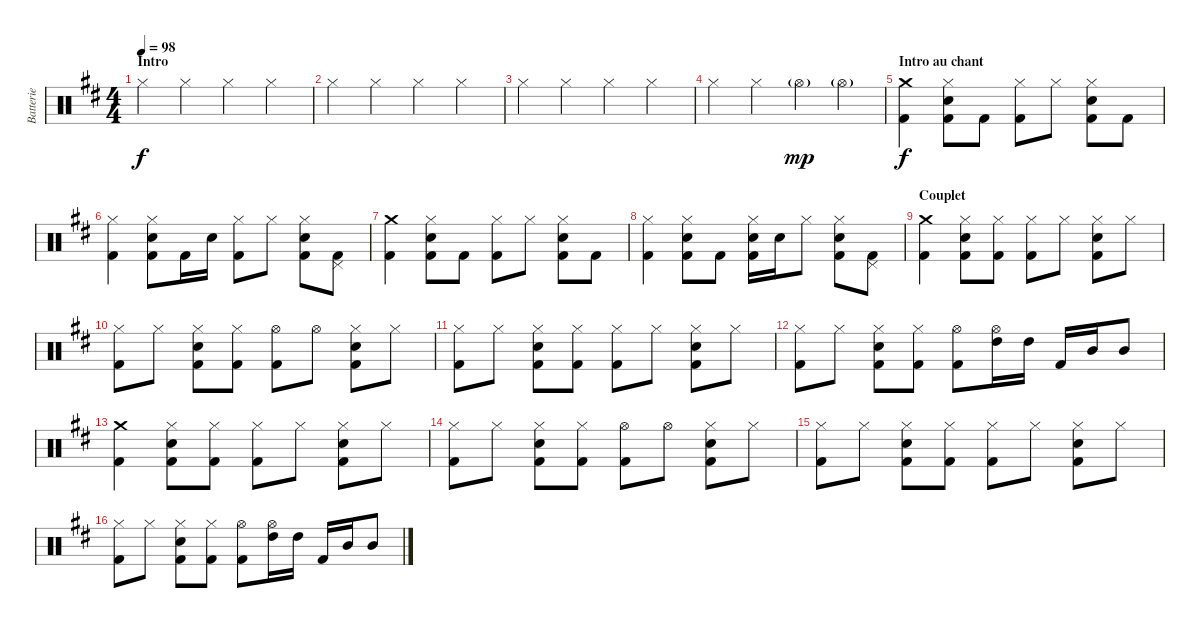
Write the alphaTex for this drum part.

\track ("Batterie" "Batterie") {instrument percussion}
\staff {score}
\articulation defaults
\ts (4 4)
\section ("" "Intro")
\tempo 98
\clef neutral
\ks d "Hi-Hat (closed)".4{dy f} "Hi-Hat (closed)".4 "Hi-Hat (closed)".4 "Hi-Hat (closed)".4
|
"Hi-Hat (closed)".4 "Hi-Hat (closed)".4 "Hi-Hat (closed)".4 "Hi-Hat (closed)".4 |
"Hi-Hat (closed)".4 "Hi-Hat (closed)".4 "Hi-Hat (closed)".4 "Hi-Hat (closed)".4 |
"Hi-Hat (closed)".4 "Hi-Hat (closed)".4 "Hi-Hat (open)"{g}.4{dy mp} "Hi-Hat (open)"{g}.4 |
\section ("" "Intro au chant")
("Crash medium (hit)" "Kick (hit) 2").4{dy f} ("Hi-Hat (closed)" "Snare (hit) 2" "Kick (hit) 2").8 "Kick (hit) 2".8 ("Hi-Hat (closed)" "Kick (hit) 2").8 "Hi-Hat (closed)".8 ("Hi-Hat (closed)" "Snare (hit) 2" "Kick (hit) 2").8 "Kick (hit) 2".8 |
("Hi-Hat (closed)" "Kick (hit) 2").4 ("Hi-Hat (closed)" "Snare (hit) 2" "Kick (hit) 2").8 "Kick (hit) 2".16 "Snare (hit) 2".16 ("Hi-Hat (closed)" "Kick (hit) 2").8 "Hi-Hat (closed)".8 ("Hi-Hat (closed)" "Snare (hit) 2" "Kick (hit) 2").8 ("Pedal Hi-Hat (hit)" "Kick (hit) 2").8 |
("Crash medium (hit)" "Kick (hit) 2").4 ("Hi-Hat (closed)" "Snare (hit) 2" "Kick (hit) 2").8 "Kick (hit) 2".8 ("Hi-Hat (closed)" "Kick (hit) 2").8 "Hi-Hat (closed)".8 ("Hi-Hat (closed)" "Snare (hit) 2" "Kick (hit) 2").8 "Kick (hit) 2".8 |
("Hi-Hat (closed)" "Kick (hit) 2").4 ("Hi-Hat (closed)" "Snare (hit) 2" "Kick (hit) 2").8 "Kick (hit) 2".8 ("Hi-Hat (closed)" "Snare (hit) 2" "Kick (hit) 2").16 "Snare (hit) 2".16 "Hi-Hat (closed)".8 ("Hi-Hat (closed)" "Snare (hit) 2" "Kick (hit) 2").8 ("Pedal Hi-Hat (hit)" "Kick (hit) 2").8 |
\section ("" "Couplet")
("Crash medium (hit)" "Kick (hit) 2").4 ("Hi-Hat (closed)" "Snare (hit) 2" "Kick (hit) 2").8 ("Hi-Hat (closed)" "Kick (hit) 2").8 ("Hi-Hat (closed)" "Kick (hit) 2").8 "Hi-Hat (closed)".8 ("Hi-Hat (closed)" "Snare (hit) 2" "Kick (hit) 2").8 "Hi-Hat (closed)".8 |
("Hi-Hat (closed)" "Kick (hit) 2").8 "Hi-Hat (closed)".8 ("Hi-Hat (closed)" "Snare (hit) 2" "Kick (hit) 2").8 ("Hi-Hat (closed)" "Kick (hit) 2").8 ("Hi-Hat (open)" "Kick (hit) 2").8 "Hi-Hat (open)".8 ("Hi-Hat (closed)" "Snare (hit) 2" "Kick (hit) 2").8 "Hi-Hat (closed)".8 |
("Hi-Hat (closed)" "Kick (hit) 2").8 "Hi-Hat (closed)".8 ("Hi-Hat (closed)" "Snare (hit) 2" "Kick (hit) 2").8 ("Hi-Hat (closed)" "Kick (hit) 2").8 ("Hi-Hat (closed)" "Kick (hit) 2").8 "Hi-Hat (closed)".8 ("Hi-Hat (closed)" "Snare (hit) 2" "Kick (hit) 2").8 "Hi-Hat (closed)".8 |
("Hi-Hat (closed)" "Kick (hit) 2").8 "Hi-Hat (closed)".8 ("Hi-Hat (closed)" "Snare (hit) 2" "Kick (hit) 2").8 ("Hi-Hat (closed)" "Kick (hit) 2").8 ("Hi-Hat (open)" "Kick (hit) 2").8 ("Hi-Hat (open)" "High Tom (hit)").16 "High Tom (hit)".16 "Kick (hit) 2".16 "Mid Tom (hit)".16 "Mid Tom (hit)".8 |
("Crash medium (hit)" "Kick (hit) 2").4 ("Hi-Hat (closed)" "Snare (hit) 2" "Kick (hit) 2").8 ("Hi-Hat (closed)" "Kick (hit) 2").8 ("Hi-Hat (closed)" "Kick (hit) 2").8 "Hi-Hat (closed)".8 ("Hi-Hat (closed)" "Snare (hit) 2" "Kick (hit) 2").8 "Hi-Hat (closed)".8 |
("Hi-Hat (closed)" "Kick (hit) 2").8 "Hi-Hat (closed)".8 ("Hi-Hat (closed)" "Snare (hit) 2" "Kick (hit) 2").8 ("Hi-Hat (closed)" "Kick (hit) 2").8 ("Hi-Hat (open)" "Kick (hit) 2").8 "Hi-Hat (open)".8 ("Hi-Hat (closed)" "Snare (hit) 2" "Kick (hit) 2").8 "Hi-Hat (closed)".8 |
("Hi-Hat (closed)" "Kick (hit) 2").8 "Hi-Hat (closed)".8 ("Hi-Hat (closed)" "Snare (hit) 2" "Kick (hit) 2").8 ("Hi-Hat (closed)" "Kick (hit) 2").8 ("Hi-Hat (closed)" "Kick (hit) 2").8 "Hi-Hat (closed)".8 ("Hi-Hat (closed)" "Snare (hit) 2" "Kick (hit) 2").8 "Hi-Hat (closed)".8 |
("Hi-Hat (closed)" "Kick (hit) 2").8 "Hi-Hat (closed)".8 ("Hi-Hat (closed)" "Snare (hit) 2" "Kick (hit) 2").8 ("Hi-Hat (closed)" "Kick (hit) 2").8 ("Hi-Hat (open)" "Kick (hit) 2").8 ("Hi-Hat (open)" "High Tom (hit)").16 "High Tom (hit)".16 "Kick (hit) 2".16 "Mid Tom (hit)".16 "Mid Tom (hit)".8
